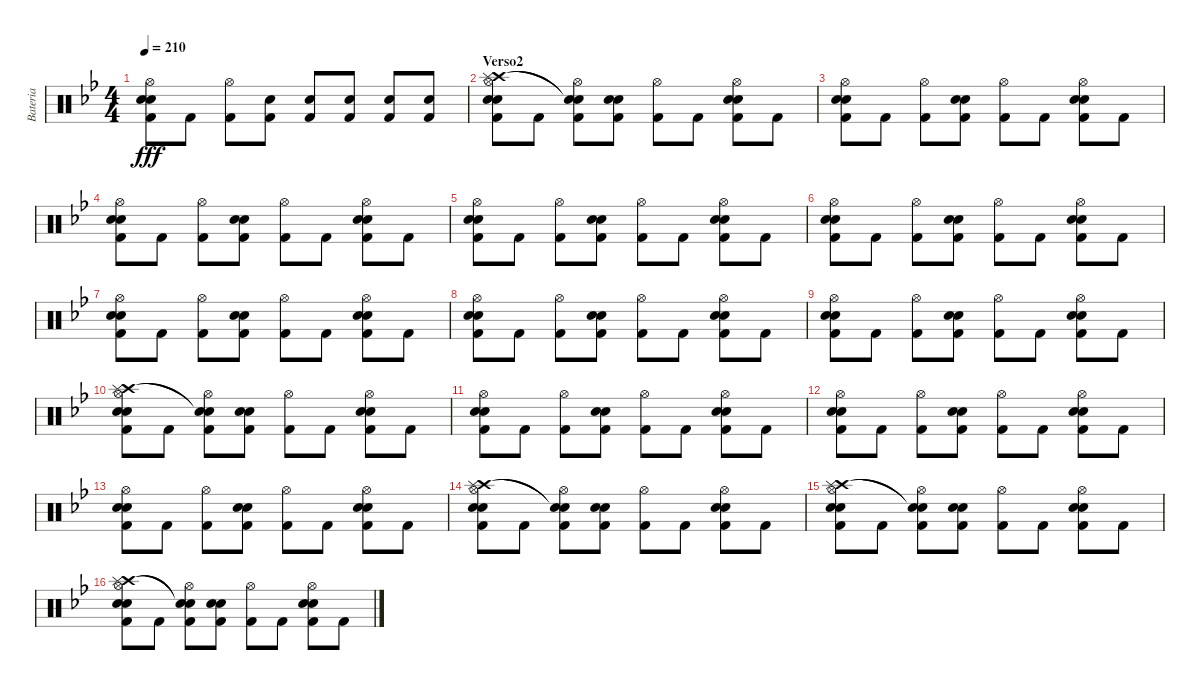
\track ("Bateria" "Bateria") {instrument percussion}
\staff {score}
\articulation defaults
\ts (4 4)
\tempo 210
\clef neutral
\ks gminor
("Hi-Hat (open)" "Snare (hit) 2" "Kick (hit) 2" "Electric Snare (hit)").8{dy fff} "Kick (hit) 2".8 ("Hi-Hat (open)" "Kick (hit) 2").8 ("Snare (hit) 2" "Kick (hit) 2").8 ("Snare (hit) 2" "Kick (hit) 2").8 ("Snare (hit) 2" "Kick (hit) 2").8 ("Snare (hit) 2" "Kick (hit) 2").8 ("Snare (hit) 2" "Kick (hit) 2").8 |
\section ("" "Verso2")
("Hi-Hat (open)" "Crash high (hit)" "Splash (hit)" "Snare (hit) 2" "Electric Snare (hit)" "Kick (hit) 2").8 "Kick (hit) 2".8 ("Hi-Hat (open)" "Snare (hit)"{t} "Snare (hit)"{t} "Kick (hit) 2").8 ("Snare (hit) 2" "Electric Snare (hit)" "Kick (hit) 2").8 ("Hi-Hat (open)" "Kick (hit) 2").8 "Kick (hit) 2".8 ("Hi-Hat (open)" "Snare (hit) 2" "Electric Snare (hit)" "Kick (hit) 2").8 "Kick (hit) 2".8 |
("Hi-Hat (open)" "Snare (hit) 2" "Kick (hit) 2" "Electric Snare (hit)").8 "Kick (hit) 2".8 ("Hi-Hat (open)" "Kick (hit) 2").8 ("Snare (hit) 2" "Kick (hit) 2" "Electric Snare (hit)").8 ("Hi-Hat (open)" "Kick (hit) 2").8 "Kick (hit) 2".8 ("Hi-Hat (open)" "Snare (hit) 2" "Kick (hit) 2" "Electric Snare (hit)").8 "Kick (hit) 2".8 |
("Hi-Hat (open)" "Snare (hit) 2" "Kick (hit) 2" "Electric Snare (hit)").8 "Kick (hit) 2".8 ("Hi-Hat (open)" "Kick (hit) 2").8 ("Snare (hit) 2" "Kick (hit) 2" "Electric Snare (hit)").8 ("Hi-Hat (open)" "Kick (hit) 2").8 "Kick (hit) 2".8 ("Hi-Hat (open)" "Snare (hit) 2" "Kick (hit) 2" "Electric Snare (hit)").8 "Kick (hit) 2".8 |
("Hi-Hat (open)" "Snare (hit) 2" "Kick (hit) 2" "Electric Snare (hit)").8 "Kick (hit) 2".8 ("Hi-Hat (open)" "Kick (hit) 2").8 ("Snare (hit) 2" "Kick (hit) 2" "Electric Snare (hit)").8 ("Hi-Hat (open)" "Kick (hit) 2").8 "Kick (hit) 2".8 ("Hi-Hat (open)" "Snare (hit) 2" "Kick (hit) 2" "Electric Snare (hit)").8 "Kick (hit) 2".8 |
("Hi-Hat (open)" "Snare (hit) 2" "Kick (hit) 2" "Electric Snare (hit)").8 "Kick (hit) 2".8 ("Hi-Hat (open)" "Kick (hit) 2").8 ("Snare (hit) 2" "Kick (hit) 2" "Electric Snare (hit)").8 ("Hi-Hat (open)" "Kick (hit) 2").8 "Kick (hit) 2".8 ("Hi-Hat (open)" "Snare (hit) 2" "Kick (hit) 2" "Electric Snare (hit)").8 "Kick (hit) 2".8 |
("Hi-Hat (open)" "Snare (hit) 2" "Kick (hit) 2" "Electric Snare (hit)").8 "Kick (hit) 2".8 ("Hi-Hat (open)" "Kick (hit) 2").8 ("Snare (hit) 2" "Kick (hit) 2" "Electric Snare (hit)").8 ("Hi-Hat (open)" "Kick (hit) 2").8 "Kick (hit) 2".8 ("Hi-Hat (open)" "Snare (hit) 2" "Kick (hit) 2" "Electric Snare (hit)").8 "Kick (hit) 2".8 |
("Hi-Hat (open)" "Snare (hit) 2" "Kick (hit) 2" "Electric Snare (hit)").8 "Kick (hit) 2".8 ("Hi-Hat (open)" "Kick (hit) 2").8 ("Snare (hit) 2" "Kick (hit) 2" "Electric Snare (hit)").8 ("Hi-Hat (open)" "Kick (hit) 2").8 "Kick (hit) 2".8 ("Hi-Hat (open)" "Snare (hit) 2" "Kick (hit) 2" "Electric Snare (hit)").8 "Kick (hit) 2".8 |
("Hi-Hat (open)" "Snare (hit) 2" "Kick (hit) 2" "Electric Snare (hit)").8 "Kick (hit) 2".8 ("Hi-Hat (open)" "Kick (hit) 2").8 ("Snare (hit) 2" "Kick (hit) 2" "Electric Snare (hit)").8 ("Hi-Hat (open)" "Kick (hit) 2").8 "Kick (hit) 2".8 ("Hi-Hat (open)" "Snare (hit) 2" "Kick (hit) 2" "Electric Snare (hit)").8 "Kick (hit) 2".8 |
("Hi-Hat (open)" "Crash high (hit)" "Splash (hit)" "Snare (hit) 2" "Kick (hit) 2" "Electric Snare (hit)").8 "Kick (hit) 2".8 ("Hi-Hat (open)" "Snare (hit)"{t} "Snare (hit)"{t} "Kick (hit) 2").8 ("Snare (hit) 2" "Kick (hit) 2" "Electric Snare (hit)").8 ("Hi-Hat (open)" "Kick (hit) 2").8 "Kick (hit) 2".8 ("Hi-Hat (open)" "Snare (hit) 2" "Kick (hit) 2" "Electric Snare (hit)").8 "Kick (hit) 2".8 |
("Hi-Hat (open)" "Snare (hit) 2" "Kick (hit) 2" "Electric Snare (hit)").8 "Kick (hit) 2".8 ("Hi-Hat (open)" "Kick (hit) 2").8 ("Snare (hit) 2" "Kick (hit) 2" "Electric Snare (hit)").8 ("Hi-Hat (open)" "Kick (hit) 2").8 "Kick (hit) 2".8 ("Hi-Hat (open)" "Snare (hit) 2" "Kick (hit) 2" "Electric Snare (hit)").8 "Kick (hit) 2".8 |
("Hi-Hat (open)" "Snare (hit) 2" "Kick (hit) 2" "Electric Snare (hit)").8 "Kick (hit) 2".8 ("Hi-Hat (open)" "Kick (hit) 2").8 ("Snare (hit) 2" "Kick (hit) 2" "Electric Snare (hit)").8 ("Hi-Hat (open)" "Kick (hit) 2").8 "Kick (hit) 2".8 ("Hi-Hat (open)" "Snare (hit) 2" "Kick (hit) 2" "Electric Snare (hit)").8 "Kick (hit) 2".8 |
("Hi-Hat (open)" "Snare (hit) 2" "Kick (hit) 2" "Electric Snare (hit)").8 "Kick (hit) 2".8 ("Hi-Hat (open)" "Kick (hit) 2").8 ("Snare (hit) 2" "Kick (hit) 2" "Electric Snare (hit)").8 ("Hi-Hat (open)" "Kick (hit) 2").8 "Kick (hit) 2".8 ("Hi-Hat (open)" "Snare (hit) 2" "Kick (hit) 2" "Electric Snare (hit)").8 "Kick (hit) 2".8 |
("Hi-Hat (open)" "Crash high (hit)" "Splash (hit)" "Snare (hit) 2" "Kick (hit) 2" "Electric Snare (hit)").8 "Kick (hit) 2".8 ("Hi-Hat (open)" "Snare (hit)"{t} "Snare (hit)"{t} "Kick (hit) 2").8 ("Snare (hit) 2" "Kick (hit) 2" "Electric Snare (hit)").8 ("Hi-Hat (open)" "Kick (hit) 2").8 "Kick (hit) 2".8 ("Hi-Hat (open)" "Snare (hit) 2" "Kick (hit) 2" "Electric Snare (hit)").8 "Kick (hit) 2".8 |
("Hi-Hat (open)" "Crash high (hit)" "Splash (hit)" "Snare (hit) 2" "Kick (hit) 2" "Electric Snare (hit)").8 "Kick (hit) 2".8 ("Hi-Hat (open)" "Snare (hit)"{t} "Snare (hit)"{t} "Kick (hit) 2").8 ("Snare (hit) 2" "Kick (hit) 2" "Electric Snare (hit)").8 ("Hi-Hat (open)" "Kick (hit) 2").8 "Kick (hit) 2".8 ("Hi-Hat (open)" "Snare (hit) 2" "Kick (hit) 2" "Electric Snare (hit)").8 "Kick (hit) 2".8 |
("Hi-Hat (open)" "Crash high (hit)" "Splash (hit)" "Snare (hit) 2" "Kick (hit) 2" "Electric Snare (hit)").8 "Kick (hit) 2".8 ("Hi-Hat (open)" "Snare (hit)"{t} "Snare (hit)"{t} "Kick (hit) 2").8 ("Snare (hit) 2" "Kick (hit) 2" "Electric Snare (hit)").8 ("Hi-Hat (open)" "Kick (hit) 2").8 "Kick (hit) 2".8 ("Hi-Hat (open)" "Snare (hit) 2" "Kick (hit) 2" "Electric Snare (hit)").8 "Kick (hit) 2".8
